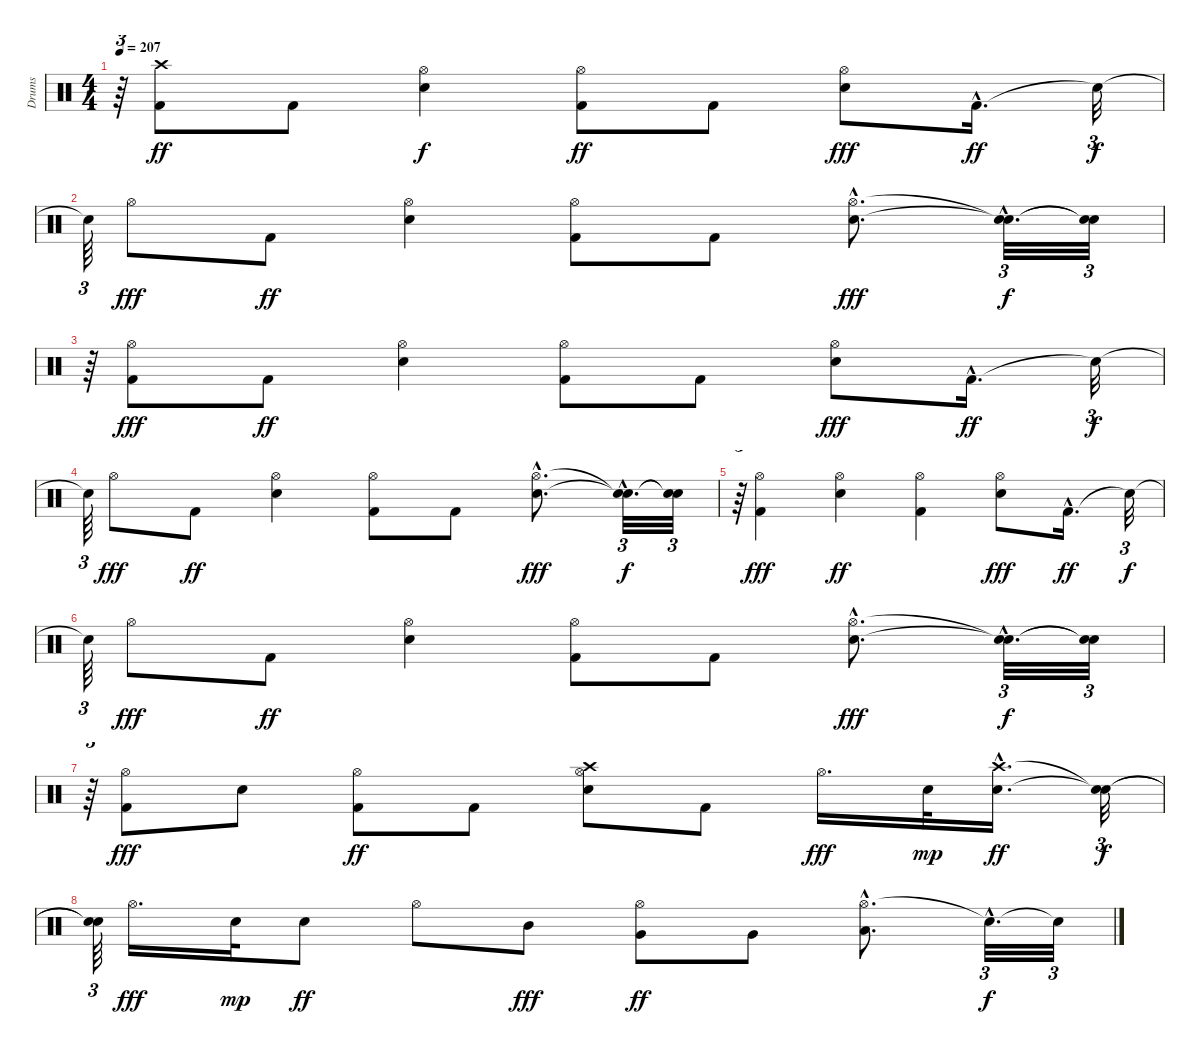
\track ("Drums" "Drums") {instrument percussion}
\staff {score}
\articulation defaults
\ts (4 4)
\tempo 207
\clef neutral
\ks c
r.64{tu (3 2) dy f} ("Crash high (hit)" "Kick (hit) 2").8{dy ff} "Kick (hit) 2".8 ("Snare (hit) 2" "Hi-Hat (open)").4{dy f} ("Kick (hit) 2" "Hi-Hat (open)").8{dy ff} "Kick (hit) 2".8 ("Snare (hit) 2" "Hi-Hat (open)").8{dy fff} "Kick (hit) 2"{hac}.16{d dy ff} "Snare (hit)"{t}.32{tu (3 2) dy f} |
"Snare (hit)"{t}.64{tu (3 2)} "Hi-Hat (open)".8{dy fff} "Kick (hit) 2".8{dy ff} ("Snare (hit) 2" "Hi-Hat (open)").4 ("Kick (hit) 2" "Hi-Hat (open)").8 "Kick (hit) 2".8 ("Snare (hit) 2"{hac} "Hi-Hat (open)"{hac}).8{d dy fff} ("Snare (hit)"{hac t} "Snare (hit)"{hac t}).32{d tu (3 2) dy f} ("Snare (hit)"{t} "Snare (hit)"{t}).32{tu (3 2)} |
r.64{tu (3 2)} ("Kick (hit) 2" "Hi-Hat (open)").8{dy fff} "Kick (hit) 2".8{dy ff} ("Snare (hit) 2" "Hi-Hat (open)").4 ("Kick (hit) 2" "Hi-Hat (open)").8 "Kick (hit) 2".8 ("Snare (hit) 2" "Hi-Hat (open)").8{dy fff} "Kick (hit) 2"{hac}.16{d dy ff} "Snare (hit)"{t}.32{tu (3 2) dy f} |
"Snare (hit)"{t}.64{tu (3 2)} "Hi-Hat (open)".8{dy fff} "Kick (hit) 2".8{dy ff} ("Snare (hit) 2" "Hi-Hat (open)").4 ("Kick (hit) 2" "Hi-Hat (open)").8 "Kick (hit) 2".8 ("Snare (hit) 2"{hac} "Hi-Hat (open)"{hac}).8{d dy fff} ("Snare (hit)"{hac t} "Snare (hit)"{hac t}).32{d tu (3 2) dy f} ("Snare (hit)"{t} "Snare (hit)"{t}).32{tu (3 2)} |
r.64{tu (3 2)} ("Kick (hit) 2" "Hi-Hat (open)").4{dy fff} ("Snare (hit) 2" "Hi-Hat (open)").4{dy ff} ("Kick (hit) 2" "Hi-Hat (open)").4 ("Snare (hit) 2" "Hi-Hat (open)").8{dy fff} "Kick (hit) 2"{hac}.16{d dy ff} "Snare (hit)"{t}.32{tu (3 2) dy f} |
"Snare (hit)"{t}.64{tu (3 2)} "Hi-Hat (open)".8{dy fff} "Kick (hit) 2".8{dy ff} ("Snare (hit) 2" "Hi-Hat (open)").4 ("Kick (hit) 2" "Hi-Hat (open)").8 "Kick (hit) 2".8 ("Snare (hit) 2"{hac} "Hi-Hat (open)"{hac}).8{d dy fff} ("Snare (hit)"{hac t} "Snare (hit)"{hac t}).32{d tu (3 2) dy f} ("Snare (hit)"{t} "Snare (hit)"{t}).32{tu (3 2)} |
r.64{tu (3 2)} ("Kick (hit) 2" "Hi-Hat (open)").8{dy fff} "Snare (hit) 2".8 ("Kick (hit) 2" "Hi-Hat (open)").8{dy ff} "Kick (hit) 2".8 ("Crash high (hit)" "Snare (hit) 2" "Hi-Hat (open)").8 "Kick (hit) 2".8 "Hi-Hat (open)".16{d dy fff} "Snare (hit) 2".32{dy mp} ("Crash high (hit)"{hac} "Snare (hit) 2"{hac}).16{d dy ff} ("Snare (hit)"{t} "Snare (hit)"{t}).32{tu (3 2) dy f} |
("Snare (hit)"{t} "Snare (hit)"{t}).64{tu (3 2)} "Hi-Hat (open)".16{d dy fff} "Snare (hit) 2".32{dy mp} "Snare (hit) 2".8{dy ff} "Hi-Hat (open)".8 "Mid Tom (hit)".8{dy fff} ("Hi-Hat (open)" "Very Low Tom (hit)").8{dy ff} "Very Low Tom (hit)".8 ("Hi-Hat (open)"{hac} "Low Floor Tom (hit)").8{d} "Snare (hit)"{hac t}.32{d tu (3 2) dy f} "Snare (hit)"{t}.32{tu (3 2)}
